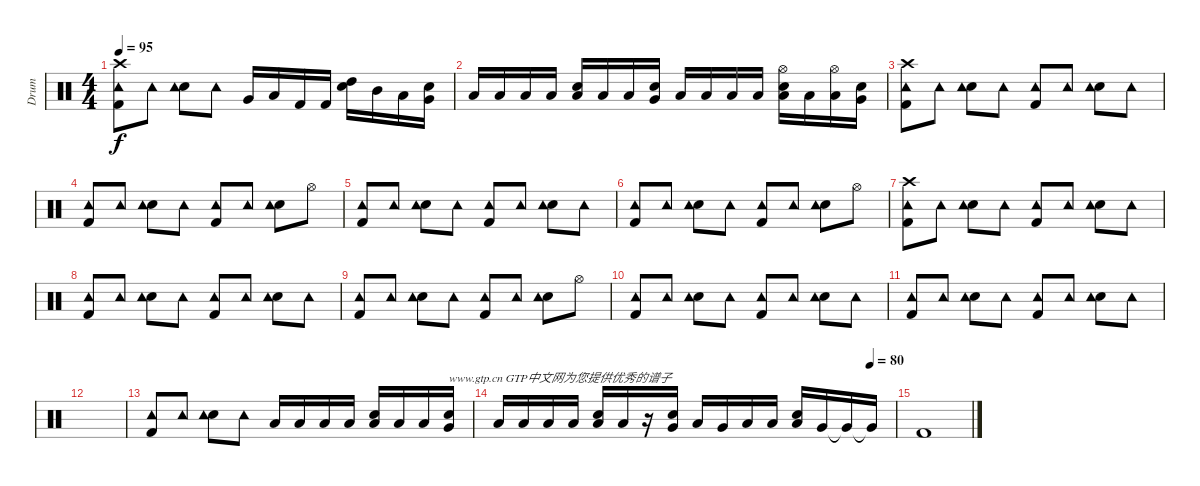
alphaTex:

\track ("Drum" "Drum") {instrument percussion}
\staff {score}
\articulation defaults
\ts (4 4)
\tempo 95
\clef neutral
\ks c
("Kick (hit) 2" "Tambourine (hit)" "Crash high (hit)").8{dy f} "Tambourine (hit)".8 ("Electric Snare (hit)" "Tambourine (hit)").8 "Tambourine (hit)".8 "Very Low Tom (hit)".16 "Low Floor Tom (hit)".16 "Kick (hit) 2".16 "Kick (hit) 2".16 ("High Tom (hit)" "Snare (hit) 2").16 "Mid Tom (hit)".16 "Low Tom (hit)".16 ("Very Low Tom (hit)" "Snare (hit) 2").16 |
"Low Floor Tom (hit)".16 "Low Floor Tom (hit)".16 "Low Tom (hit)".16 "Low Floor Tom (hit)".16 ("Low Floor Tom (hit)" "Snare (hit) 2").16 "Low Floor Tom (hit)".16 "Low Floor Tom (hit)".16 ("Very Low Tom (hit)" "Snare (hit) 2").16 "Low Floor Tom (hit)".16 "Low Floor Tom (hit)".16 "Low Floor Tom (hit)".16 "Low Floor Tom (hit)".16 ("Low Floor Tom (hit)" "Snare (hit) 2" "Hi-Hat (open)").16 "Low Floor Tom (hit)".16 ("Low Floor Tom (hit)" "Hi-Hat (open)").16 ("Very Low Tom (hit)" "Snare (hit) 2").16 |
("Kick (hit) 2" "Tambourine (hit)" "Crash high (hit)").8 "Tambourine (hit)".8 ("Electric Snare (hit)" "Tambourine (hit)").8 "Tambourine (hit)".8 ("Kick (hit) 2" "Tambourine (hit)").8 "Tambourine (hit)".8 ("Electric Snare (hit)" "Tambourine (hit)").8 "Tambourine (hit)".8 |
("Kick (hit) 2" "Tambourine (hit)").8 "Tambourine (hit)".8 ("Electric Snare (hit)" "Tambourine (hit)").8 "Tambourine (hit)".8 ("Kick (hit) 2" "Tambourine (hit)").8 "Tambourine (hit)".8 ("Electric Snare (hit)" "Tambourine (hit)").8 "Hi-Hat (open)".8 |
("Kick (hit) 2" "Tambourine (hit)").8 "Tambourine (hit)".8 ("Electric Snare (hit)" "Tambourine (hit)").8 "Tambourine (hit)".8 ("Kick (hit) 2" "Tambourine (hit)").8 "Tambourine (hit)".8 ("Electric Snare (hit)" "Tambourine (hit)").8 "Tambourine (hit)".8 |
("Kick (hit) 2" "Tambourine (hit)").8 "Tambourine (hit)".8 ("Electric Snare (hit)" "Tambourine (hit)").8 "Tambourine (hit)".8 ("Kick (hit) 2" "Tambourine (hit)").8 "Tambourine (hit)".8 ("Electric Snare (hit)" "Tambourine (hit)").8 "Hi-Hat (open)".8 |
("Kick (hit) 2" "Tambourine (hit)" "Crash high (hit)").8 "Tambourine (hit)".8 ("Electric Snare (hit)" "Tambourine (hit)").8 "Tambourine (hit)".8 ("Kick (hit) 2" "Tambourine (hit)").8 "Tambourine (hit)".8 ("Electric Snare (hit)" "Tambourine (hit)").8 "Tambourine (hit)".8 |
("Kick (hit) 2" "Tambourine (hit)").8 "Tambourine (hit)".8 ("Electric Snare (hit)" "Tambourine (hit)").8 "Tambourine (hit)".8 ("Kick (hit) 2" "Tambourine (hit)").8 "Tambourine (hit)".8 ("Electric Snare (hit)" "Tambourine (hit)").8 "Tambourine (hit)".8 |
("Kick (hit) 2" "Tambourine (hit)").8 "Tambourine (hit)".8 ("Electric Snare (hit)" "Tambourine (hit)").8 "Tambourine (hit)".8 ("Kick (hit) 2" "Tambourine (hit)").8 "Tambourine (hit)".8 ("Electric Snare (hit)" "Tambourine (hit)").8 "Hi-Hat (open)".8 |
("Kick (hit) 2" "Tambourine (hit)").8 "Tambourine (hit)".8 ("Electric Snare (hit)" "Tambourine (hit)").8 "Tambourine (hit)".8 ("Kick (hit) 2" "Tambourine (hit)").8 "Tambourine (hit)".8 ("Electric Snare (hit)" "Tambourine (hit)").8 "Tambourine (hit)".8 |
("Kick (hit) 2" "Tambourine (hit)").8 "Tambourine (hit)".8 ("Electric Snare (hit)" "Tambourine (hit)").8 "Tambourine (hit)".8 ("Kick (hit) 2" "Tambourine (hit)").8 "Tambourine (hit)".8 ("Electric Snare (hit)" "Tambourine (hit)").8 "Tambourine (hit)".8 |
|
("Kick (hit) 2" "Tambourine (hit)").8 "Tambourine (hit)".8 ("Electric Snare (hit)" "Tambourine (hit)").8 "Tambourine (hit)".8 "Low Floor Tom (hit)".16 "Low Floor Tom (hit)".16 "Low Floor Tom (hit)".16 "Low Floor Tom (hit)".16 ("Low Floor Tom (hit)" "Snare (hit) 2").16 "Low Floor Tom (hit)".16 "Low Floor Tom (hit)".16 ("Very Low Tom (hit)" "Snare (hit) 2").16{txt "www.gtp.cn GTP中文网为您提供优秀的谱子"} |
\tempo (80 0.9375)
"Low Floor Tom (hit)".16 "Low Floor Tom (hit)".16 "Low Floor Tom (hit)".16 "Low Floor Tom (hit)".16 ("Low Floor Tom (hit)" "Snare (hit) 2").16 "Low Floor Tom (hit)".16 r.16 ("Very Low Tom (hit)" "Snare (hit) 2").16 "Low Floor Tom (hit)".16 "Very Low Tom (hit)".16 "Low Floor Tom (hit)".16 "Low Floor Tom (hit)".16 ("Low Floor Tom (hit)" "Snare (hit) 2").16 "Very Low Tom (hit)".16 "Very Low Tom (hit)"{t}.16 "Very Low Tom (hit)"{t}.16 |
"Kick (hit) 2".1
